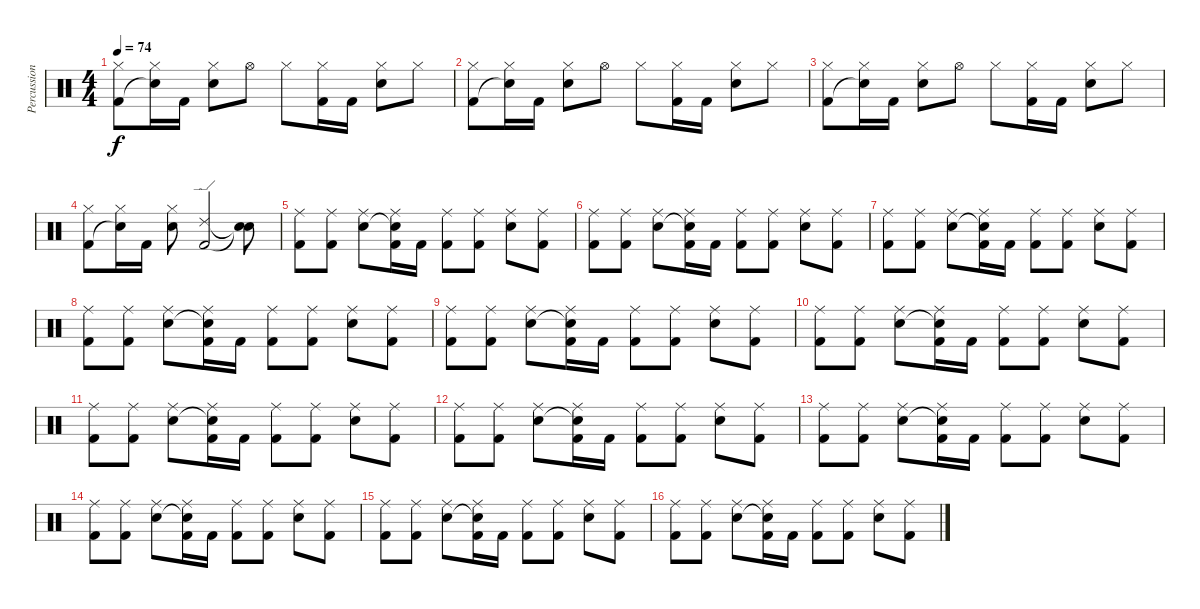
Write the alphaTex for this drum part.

\track ("Percussion" "Percussion") {instrument percussion}
\staff {score}
\articulation defaults
\ts (4 4)
\tempo 74
\clef neutral
\ks c
("Hi-Hat (closed)" "Kick (hit) 2").8{dy f} ("Hi-Hat (closed)" "Snare (hit)"{t}).16 "Kick (hit) 2".16 ("Hi-Hat (closed)" "Electric Snare (hit)").8 "Hi-Hat (open)".8 "Hi-Hat (closed)".8 ("Hi-Hat (closed)" "Kick (hit) 2").16 "Kick (hit) 2".16 ("Hi-Hat (closed)" "Electric Snare (hit)").8 "Hi-Hat (closed)".8 |
("Hi-Hat (closed)" "Kick (hit) 2").8 ("Hi-Hat (closed)" "Snare (hit)"{t}).16 "Kick (hit) 2".16 ("Hi-Hat (closed)" "Electric Snare (hit)").8 "Hi-Hat (open)".8 "Hi-Hat (closed)".8 ("Hi-Hat (closed)" "Kick (hit) 2").16 "Kick (hit) 2".16 ("Hi-Hat (closed)" "Electric Snare (hit)").8 "Hi-Hat (closed)".8 |
("Hi-Hat (closed)" "Kick (hit) 2").8 ("Hi-Hat (closed)" "Snare (hit)"{t}).16 "Kick (hit) 2".16 ("Hi-Hat (closed)" "Electric Snare (hit)").8 "Hi-Hat (open)".8 "Hi-Hat (closed)".8 ("Hi-Hat (closed)" "Kick (hit) 2").16 "Kick (hit) 2".16 ("Hi-Hat (closed)" "Electric Snare (hit)").8 "Hi-Hat (closed)".8 |
("Hi-Hat (closed)" "Kick (hit) 2").8 ("Hi-Hat (closed)" "Snare (hit)"{t}).16 "Kick (hit) 2".16 ("Hi-Hat (closed)" "Electric Snare (hit)").8 ("Ride (edge) 2" "Kick (hit) 2").2 ("Snare (hit)"{t} "Snare (hit)"{t}).8 |
("Ride (middle)" "Kick (hit) 2").8 ("Ride (middle)" "Kick (hit) 2").8 ("Ride (middle)" "Electric Snare (hit)").8 ("Ride (middle)" "Snare (hit)"{t} "Kick (hit) 2").16 "Kick (hit) 2".16 ("Ride (middle)" "Kick (hit) 2").8 ("Ride (middle)" "Kick (hit) 2").8 ("Ride (middle)" "Electric Snare (hit)").8 ("Ride (middle)" "Kick (hit) 2").8 |
("Ride (middle)" "Kick (hit) 2").8 ("Ride (middle)" "Kick (hit) 2").8 ("Ride (middle)" "Electric Snare (hit)").8 ("Ride (middle)" "Snare (hit)"{t} "Kick (hit) 2").16 "Kick (hit) 2".16 ("Ride (middle)" "Kick (hit) 2").8 ("Ride (middle)" "Kick (hit) 2").8 ("Ride (middle)" "Electric Snare (hit)").8 ("Ride (middle)" "Kick (hit) 2").8 |
("Ride (middle)" "Kick (hit) 2").8 ("Ride (middle)" "Kick (hit) 2").8 ("Ride (middle)" "Electric Snare (hit)").8 ("Ride (middle)" "Snare (hit)"{t} "Kick (hit) 2").16 "Kick (hit) 2".16 ("Ride (middle)" "Kick (hit) 2").8 ("Ride (middle)" "Kick (hit) 2").8 ("Ride (middle)" "Electric Snare (hit)").8 ("Ride (middle)" "Kick (hit) 2").8 |
("Ride (middle)" "Kick (hit) 2").8 ("Ride (middle)" "Kick (hit) 2").8 ("Ride (middle)" "Electric Snare (hit)").8 ("Ride (middle)" "Snare (hit)"{t} "Kick (hit) 2").16 "Kick (hit) 2".16 ("Ride (middle)" "Kick (hit) 2").8 ("Ride (middle)" "Kick (hit) 2").8 ("Ride (middle)" "Electric Snare (hit)").8 ("Ride (middle)" "Kick (hit) 2").8 |
("Ride (middle)" "Kick (hit) 2").8 ("Ride (middle)" "Kick (hit) 2").8 ("Ride (middle)" "Electric Snare (hit)").8 ("Ride (middle)" "Snare (hit)"{t} "Kick (hit) 2").16 "Kick (hit) 2".16 ("Ride (middle)" "Kick (hit) 2").8 ("Ride (middle)" "Kick (hit) 2").8 ("Ride (middle)" "Electric Snare (hit)").8 ("Ride (middle)" "Kick (hit) 2").8 |
("Ride (middle)" "Kick (hit) 2").8 ("Ride (middle)" "Kick (hit) 2").8 ("Ride (middle)" "Electric Snare (hit)").8 ("Ride (middle)" "Snare (hit)"{t} "Kick (hit) 2").16 "Kick (hit) 2".16 ("Ride (middle)" "Kick (hit) 2").8 ("Ride (middle)" "Kick (hit) 2").8 ("Ride (middle)" "Electric Snare (hit)").8 ("Ride (middle)" "Kick (hit) 2").8 |
("Ride (middle)" "Kick (hit) 2").8 ("Ride (middle)" "Kick (hit) 2").8 ("Ride (middle)" "Electric Snare (hit)").8 ("Ride (middle)" "Snare (hit)"{t} "Kick (hit) 2").16 "Kick (hit) 2".16 ("Ride (middle)" "Kick (hit) 2").8 ("Ride (middle)" "Kick (hit) 2").8 ("Ride (middle)" "Electric Snare (hit)").8 ("Ride (middle)" "Kick (hit) 2").8 |
("Ride (middle)" "Kick (hit) 2").8 ("Ride (middle)" "Kick (hit) 2").8 ("Ride (middle)" "Electric Snare (hit)").8 ("Ride (middle)" "Snare (hit)"{t} "Kick (hit) 2").16 "Kick (hit) 2".16 ("Ride (middle)" "Kick (hit) 2").8 ("Ride (middle)" "Kick (hit) 2").8 ("Ride (middle)" "Electric Snare (hit)").8 ("Ride (middle)" "Kick (hit) 2").8 |
("Ride (middle)" "Kick (hit) 2").8 ("Ride (middle)" "Kick (hit) 2").8 ("Ride (middle)" "Electric Snare (hit)").8 ("Ride (middle)" "Snare (hit)"{t} "Kick (hit) 2").16 "Kick (hit) 2".16 ("Ride (middle)" "Kick (hit) 2").8 ("Ride (middle)" "Kick (hit) 2").8 ("Ride (middle)" "Electric Snare (hit)").8 ("Ride (middle)" "Kick (hit) 2").8 |
("Ride (middle)" "Kick (hit) 2").8 ("Ride (middle)" "Kick (hit) 2").8 ("Ride (middle)" "Electric Snare (hit)").8 ("Ride (middle)" "Snare (hit)"{t} "Kick (hit) 2").16 "Kick (hit) 2".16 ("Ride (middle)" "Kick (hit) 2").8 ("Ride (middle)" "Kick (hit) 2").8 ("Ride (middle)" "Electric Snare (hit)").8 ("Ride (middle)" "Kick (hit) 2").8 |
("Ride (middle)" "Kick (hit) 2").8 ("Ride (middle)" "Kick (hit) 2").8 ("Ride (middle)" "Electric Snare (hit)").8 ("Ride (middle)" "Snare (hit)"{t} "Kick (hit) 2").16 "Kick (hit) 2".16 ("Ride (middle)" "Kick (hit) 2").8 ("Ride (middle)" "Kick (hit) 2").8 ("Ride (middle)" "Electric Snare (hit)").8 ("Ride (middle)" "Kick (hit) 2").8 |
("Ride (middle)" "Kick (hit) 2").8 ("Ride (middle)" "Kick (hit) 2").8 ("Ride (middle)" "Electric Snare (hit)").8 ("Ride (middle)" "Snare (hit)"{t} "Kick (hit) 2").16 "Kick (hit) 2".16 ("Ride (middle)" "Kick (hit) 2").8 ("Ride (middle)" "Kick (hit) 2").8 ("Ride (middle)" "Electric Snare (hit)").8 ("Ride (middle)" "Kick (hit) 2").8
